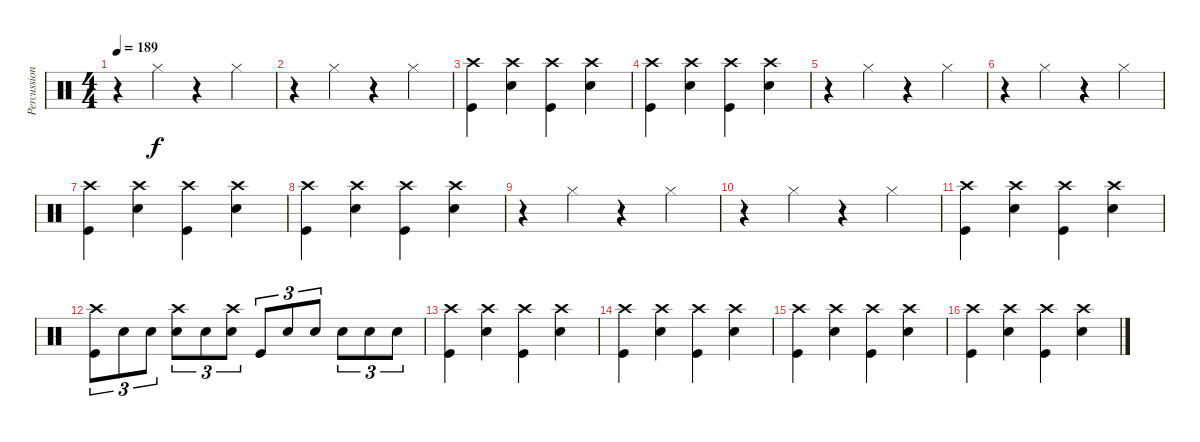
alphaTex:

\track ("Percussions" "Percussion") {instrument percussion}
\staff {score}
\articulation defaults
\ts (4 4)
\tempo 189
\clef neutral
\ks c
r.4{dy f} "Hi-Hat (closed)".4 r.4 "Hi-Hat (closed)".4 |
r.4 "Hi-Hat (closed)".4 r.4 "Hi-Hat (closed)".4 |
("Crash high (hit)" "Kick (hit)").4 ("Crash high (hit)" "Snare (hit) 2").4 ("Crash high (hit)" "Kick (hit)").4 ("Crash high (hit)" "Snare (hit) 2").4 |
("Crash high (hit)" "Kick (hit)").4 ("Crash high (hit)" "Snare (hit) 2").4 ("Crash high (hit)" "Kick (hit)").4 ("Crash high (hit)" "Snare (hit) 2").4 |
r.4 "Hi-Hat (closed)".4 r.4 "Hi-Hat (closed)".4 |
r.4 "Hi-Hat (closed)".4 r.4 "Hi-Hat (closed)".4 |
("Crash high (hit)" "Kick (hit)").4 ("Crash high (hit)" "Snare (hit) 2").4 ("Crash high (hit)" "Kick (hit)").4 ("Crash high (hit)" "Snare (hit) 2").4 |
("Crash high (hit)" "Kick (hit)").4 ("Crash high (hit)" "Snare (hit) 2").4 ("Crash high (hit)" "Kick (hit)").4 ("Crash high (hit)" "Snare (hit) 2").4 |
r.4 "Hi-Hat (closed)".4 r.4 "Hi-Hat (closed)".4 |
r.4 "Hi-Hat (closed)".4 r.4 "Hi-Hat (closed)".4 |
("Crash high (hit)" "Kick (hit)").4 ("Crash high (hit)" "Snare (hit) 2").4 ("Crash high (hit)" "Kick (hit)").4 ("Crash high (hit)" "Snare (hit) 2").4 |
("Crash high (hit)" "Kick (hit)").8{tu (3 2)} "Snare (hit) 2".8{tu (3 2)} "Snare (hit) 2".8{tu (3 2)} ("Crash high (hit)" "Snare (hit) 2").8{tu (3 2)} "Snare (hit) 2".8{tu (3 2)} ("Crash high (hit)" "Snare (hit) 2").8{tu (3 2)} "Kick (hit)".8{tu (3 2)} "Snare (hit) 2".8{tu (3 2)} "Snare (hit) 2".8{tu (3 2)} "Snare (hit) 2".8{tu (3 2)} "Snare (hit) 2".8{tu (3 2)} "Snare (hit) 2".8{tu (3 2)} |
("Crash high (hit)" "Kick (hit)").4 ("Crash high (hit)" "Snare (hit) 2").4 ("Crash high (hit)" "Kick (hit)").4 ("Crash high (hit)" "Snare (hit) 2").4 |
("Crash high (hit)" "Kick (hit)").4 ("Crash high (hit)" "Snare (hit) 2").4 ("Crash high (hit)" "Kick (hit)").4 ("Crash high (hit)" "Snare (hit) 2").4 |
("Crash high (hit)" "Kick (hit)").4 ("Crash high (hit)" "Snare (hit) 2").4 ("Crash high (hit)" "Kick (hit)").4 ("Crash high (hit)" "Snare (hit) 2").4 |
("Crash high (hit)" "Kick (hit)").4 ("Crash high (hit)" "Snare (hit) 2").4 ("Crash high (hit)" "Kick (hit)").4 ("Crash high (hit)" "Snare (hit) 2").4
